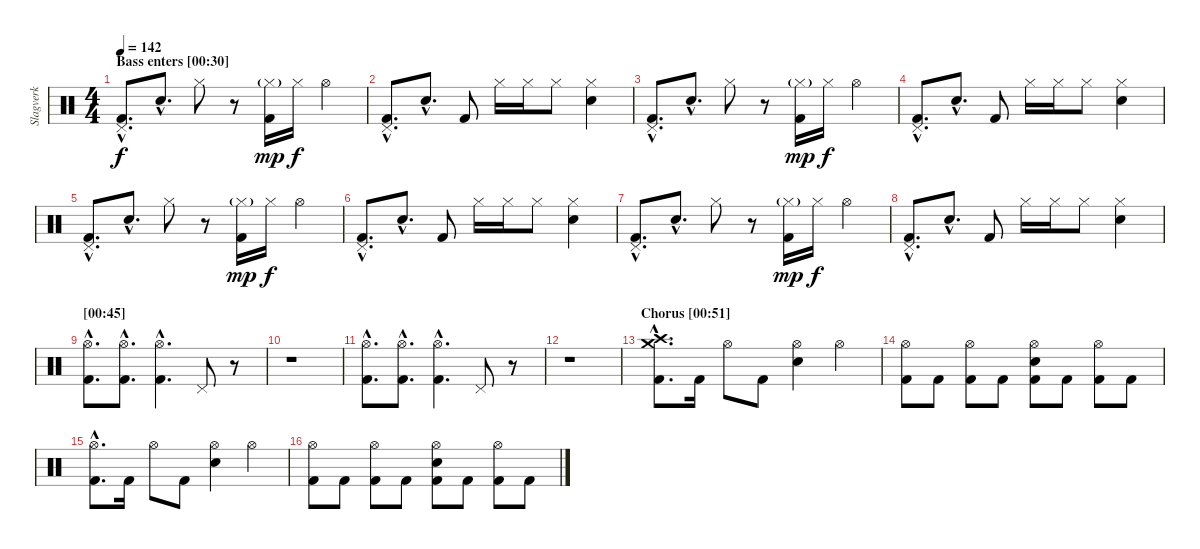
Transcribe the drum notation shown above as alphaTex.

\track ("Slagverk" "Slagverk") {instrument percussion}
\staff {score}
\articulation defaults
\ts (4 4)
\section ("" "Bass enters [00:30]")
\tempo 142
\clef neutral
\ks c
("Pedal Hi-Hat (hit)"{hac} "Kick (hit) 2"{hac}).8{d dy f} "Electric Snare (hit)"{hac}.8{d} "Hi-Hat (closed)".8 r.8 ("Hi-Hat (closed)"{g} "Kick (hit) 2").16{dy mp} "Hi-Hat (closed)".16{dy f} "Hi-Hat (open)".4 |
("Pedal Hi-Hat (hit)"{hac} "Kick (hit) 2"{hac}).8{d} "Electric Snare (hit)"{hac}.8{d} "Kick (hit) 2".8 "Hi-Hat (closed)".16 "Hi-Hat (closed)".16 "Hi-Hat (closed)".8 ("Hi-Hat (closed)" "Electric Snare (hit)").4 |
("Pedal Hi-Hat (hit)"{hac} "Kick (hit) 2"{hac}).8{d} "Electric Snare (hit)"{hac}.8{d} "Hi-Hat (closed)".8 r.8 ("Hi-Hat (closed)"{g} "Kick (hit) 2").16{dy mp} "Hi-Hat (closed)".16{dy f} "Hi-Hat (open)".4 |
("Pedal Hi-Hat (hit)"{hac} "Kick (hit) 2"{hac}).8{d} "Electric Snare (hit)"{hac}.8{d} "Kick (hit) 2".8 "Hi-Hat (closed)".16 "Hi-Hat (closed)".16 "Hi-Hat (closed)".8 ("Hi-Hat (closed)" "Electric Snare (hit)").4 |
("Pedal Hi-Hat (hit)"{hac} "Kick (hit) 2"{hac}).8{d} "Electric Snare (hit)"{hac}.8{d} "Hi-Hat (closed)".8 r.8 ("Hi-Hat (closed)"{g} "Kick (hit) 2").16{dy mp} "Hi-Hat (closed)".16{dy f} "Hi-Hat (open)".4 |
("Pedal Hi-Hat (hit)"{hac} "Kick (hit) 2"{hac}).8{d} "Electric Snare (hit)"{hac}.8{d} "Kick (hit) 2".8 "Hi-Hat (closed)".16 "Hi-Hat (closed)".16 "Hi-Hat (closed)".8 ("Hi-Hat (closed)" "Electric Snare (hit)").4 |
("Pedal Hi-Hat (hit)"{hac} "Kick (hit) 2"{hac}).8{d} "Electric Snare (hit)"{hac}.8{d} "Hi-Hat (closed)".8 r.8 ("Hi-Hat (closed)"{g} "Kick (hit) 2").16{dy mp} "Hi-Hat (closed)".16{dy f} "Hi-Hat (open)".4 |
("Pedal Hi-Hat (hit)"{hac} "Kick (hit) 2"{hac}).8{d} "Electric Snare (hit)"{hac}.8{d} "Kick (hit) 2".8 "Hi-Hat (closed)".16 "Hi-Hat (closed)".16 "Hi-Hat (closed)".8 ("Hi-Hat (closed)" "Electric Snare (hit)").4 |
\section ("" "[00:45]")
("Hi-Hat (open)"{hac} "Kick (hit) 2"{hac}).8{d} ("Hi-Hat (open)"{hac} "Kick (hit) 2"{hac}).8{d} ("Hi-Hat (open)"{hac} "Kick (hit) 2"{hac}).4{d} "Pedal Hi-Hat (hit)".8 r.8 |
r.1 |
("Hi-Hat (open)"{hac} "Kick (hit) 2"{hac}).8{d} ("Hi-Hat (open)"{hac} "Kick (hit) 2"{hac}).8{d} ("Hi-Hat (open)"{hac} "Kick (hit) 2"{hac}).4{d} "Pedal Hi-Hat (hit)".8 r.8 |
r.1 |
\section ("" "Chorus [00:51]")
("Crash medium (hit)"{hac} "Crash high (hit)"{hac} "Kick (hit) 2"{hac}).8{d} "Kick (hit) 2".16 "Hi-Hat (open)".8 "Kick (hit) 2".8 ("Hi-Hat (open)" "Electric Snare (hit)").4 "Hi-Hat (open)".4 |
("Hi-Hat (open)" "Kick (hit) 2").8 "Kick (hit) 2".8 ("Hi-Hat (open)" "Kick (hit) 2").8 "Kick (hit) 2".8 ("Hi-Hat (open)" "Electric Snare (hit)" "Kick (hit) 2").8 "Kick (hit) 2".8 ("Hi-Hat (open)" "Kick (hit) 2").8 "Kick (hit) 2".8 |
("Hi-Hat (open)"{hac} "Kick (hit) 2"{hac}).8{d} "Kick (hit) 2".16 "Hi-Hat (open)".8 "Kick (hit) 2".8 ("Hi-Hat (open)" "Electric Snare (hit)").4 "Hi-Hat (open)".4 |
("Hi-Hat (open)" "Kick (hit) 2").8 "Kick (hit) 2".8 ("Hi-Hat (open)" "Kick (hit) 2").8 "Kick (hit) 2".8 ("Hi-Hat (open)" "Electric Snare (hit)" "Kick (hit) 2").8 "Kick (hit) 2".8 ("Hi-Hat (open)" "Kick (hit) 2").8 "Kick (hit) 2".8
